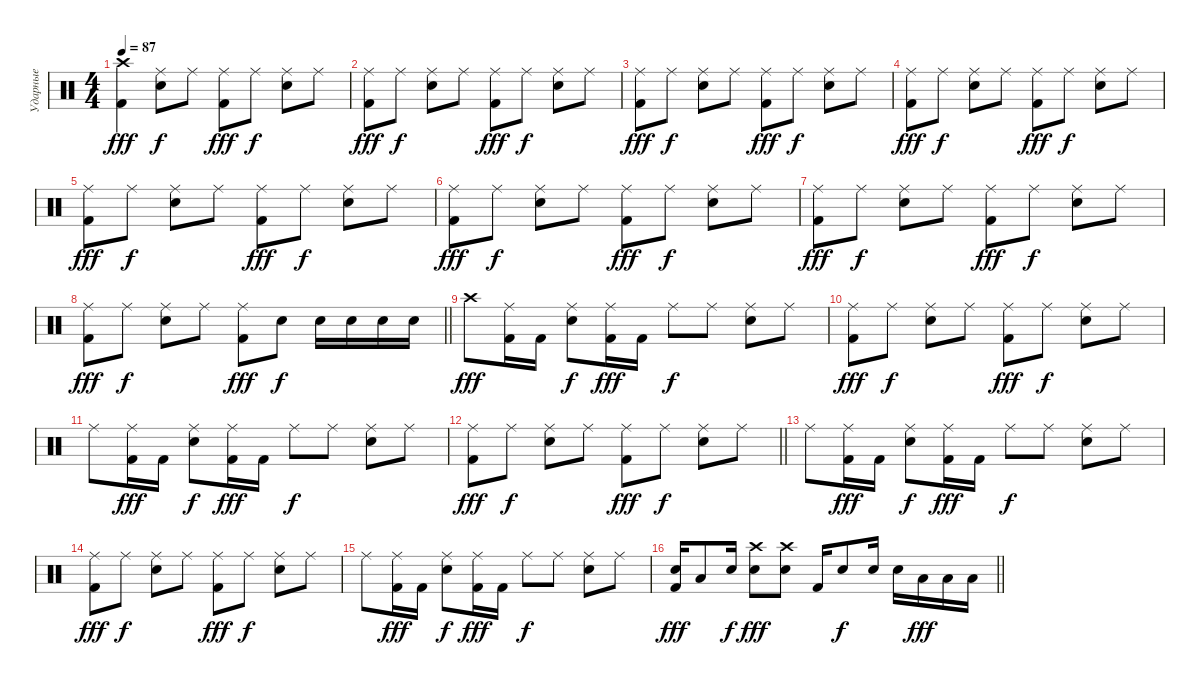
\track ("Ударные" "Ударные") {instrument percussion}
\staff {score}
\articulation defaults
\ts (4 4)
\tempo 87
\clef neutral
\ks c
("Kick (hit) 2" "Crash high (hit)").4{dy fff} ("Snare (hit) 2" "Ride (middle)").8{dy f} "Ride (middle)".8 ("Kick (hit) 2" "Ride (middle)").8{dy fff} "Ride (middle)".8{dy f} ("Snare (hit) 2" "Ride (middle)").8 "Ride (middle)".8 |
("Kick (hit) 2" "Ride (middle)").8{dy fff} "Ride (middle)".8{dy f} ("Snare (hit) 2" "Ride (middle)").8 "Ride (middle)".8 ("Kick (hit) 2" "Ride (middle)").8{dy fff} "Ride (middle)".8{dy f} ("Snare (hit) 2" "Ride (middle)").8 "Ride (middle)".8 |
("Kick (hit) 2" "Ride (middle)").8{dy fff} "Ride (middle)".8{dy f} ("Snare (hit) 2" "Ride (middle)").8 "Ride (middle)".8 ("Kick (hit) 2" "Ride (middle)").8{dy fff} "Ride (middle)".8{dy f} ("Snare (hit) 2" "Ride (middle)").8 "Ride (middle)".8 |
("Kick (hit) 2" "Ride (middle)").8{dy fff} "Ride (middle)".8{dy f} ("Snare (hit) 2" "Ride (middle)").8 "Ride (middle)".8 ("Kick (hit) 2" "Ride (middle)").8{dy fff} "Ride (middle)".8{dy f} ("Snare (hit) 2" "Ride (middle)").8 "Ride (middle)".8 |
("Kick (hit) 2" "Ride (middle)").8{dy fff} "Ride (middle)".8{dy f} ("Snare (hit) 2" "Ride (middle)").8 "Ride (middle)".8 ("Kick (hit) 2" "Ride (middle)").8{dy fff} "Ride (middle)".8{dy f} ("Snare (hit) 2" "Ride (middle)").8 "Ride (middle)".8 |
("Kick (hit) 2" "Ride (middle)").8{dy fff} "Ride (middle)".8{dy f} ("Snare (hit) 2" "Ride (middle)").8 "Ride (middle)".8 ("Kick (hit) 2" "Ride (middle)").8{dy fff} "Ride (middle)".8{dy f} ("Snare (hit) 2" "Ride (middle)").8 "Ride (middle)".8 |
("Kick (hit) 2" "Ride (middle)").8{dy fff} "Ride (middle)".8{dy f} ("Snare (hit) 2" "Ride (middle)").8 "Ride (middle)".8 ("Kick (hit) 2" "Ride (middle)").8{dy fff} "Ride (middle)".8{dy f} ("Snare (hit) 2" "Ride (middle)").8 "Ride (middle)".8 |
\barLineRight lightlight
("Kick (hit) 2" "Ride (middle)").8{dy fff} "Ride (middle)".8{dy f} ("Snare (hit) 2" "Ride (middle)").8 "Ride (middle)".8 ("Kick (hit) 2" "Ride (middle)").8{dy fff} "Snare (hit) 2".8{dy f} "Snare (hit) 2".16 "Snare (hit) 2".16 "Snare (hit) 2".16 "Snare (hit) 2".16 |
"Crash high (hit)".8{dy fff} ("Kick (hit) 2" "Ride (middle)").16 "Kick (hit) 2".16 ("Snare (hit) 2" "Ride (middle)").8{dy f} ("Kick (hit) 2" "Ride (middle)").16{dy fff} "Kick (hit) 2".16 "Ride (middle)".8{dy f} "Ride (middle)".8 ("Snare (hit) 2" "Ride (middle)").8 "Ride (middle)".8 |
("Kick (hit) 2" "Ride (middle)").8{dy fff} "Ride (middle)".8{dy f} ("Snare (hit) 2" "Ride (middle)").8 "Ride (middle)".8 ("Kick (hit) 2" "Ride (middle)").8{dy fff} "Ride (middle)".8{dy f} ("Snare (hit) 2" "Ride (middle)").8 "Ride (middle)".8 |
"Ride (middle)".8 ("Kick (hit) 2" "Ride (middle)").16{dy fff} "Kick (hit) 2".16 ("Snare (hit) 2" "Ride (middle)").8{dy f} ("Kick (hit) 2" "Ride (middle)").16{dy fff} "Kick (hit) 2".16 "Ride (middle)".8{dy f} "Ride (middle)".8 ("Snare (hit) 2" "Ride (middle)").8 "Ride (middle)".8 |
\barLineRight lightlight
("Kick (hit) 2" "Ride (middle)").8{dy fff} "Ride (middle)".8{dy f} ("Snare (hit) 2" "Ride (middle)").8 "Ride (middle)".8 ("Kick (hit) 2" "Ride (middle)").8{dy fff} "Ride (middle)".8{dy f} ("Snare (hit) 2" "Ride (middle)").8 "Ride (middle)".8 |
"Ride (middle)".8 ("Kick (hit) 2" "Ride (middle)").16{dy fff} "Kick (hit) 2".16 ("Snare (hit) 2" "Ride (middle)").8{dy f} ("Kick (hit) 2" "Ride (middle)").16{dy fff} "Kick (hit) 2".16 "Ride (middle)".8{dy f} "Ride (middle)".8 ("Snare (hit) 2" "Ride (middle)").8 "Ride (middle)".8 |
("Kick (hit) 2" "Ride (middle)").8{dy fff} "Ride (middle)".8{dy f} ("Snare (hit) 2" "Ride (middle)").8 "Ride (middle)".8 ("Kick (hit) 2" "Ride (middle)").8{dy fff} "Ride (middle)".8{dy f} ("Snare (hit) 2" "Ride (middle)").8 "Ride (middle)".8 |
"Ride (middle)".8 ("Kick (hit) 2" "Ride (middle)").16{dy fff} "Kick (hit) 2".16 ("Snare (hit) 2" "Ride (middle)").8{dy f} ("Kick (hit) 2" "Ride (middle)").16{dy fff} "Kick (hit) 2".16 "Ride (middle)".8{dy f} "Ride (middle)".8 ("Snare (hit) 2" "Ride (middle)").8 "Ride (middle)".8 |
\barLineRight lightlight
("Kick (hit) 2" "Snare (hit) 2").16{dy fff} "Low Tom (hit)".8 "Snare (hit) 2".16{dy f} ("Snare (hit) 2" "Crash high (hit)").8{dy fff} ("Snare (hit) 2" "Crash high (hit)").8 "Kick (hit) 2".16 "Snare (hit) 2".8{dy f} "Snare (hit) 2".16 "Snare (hit) 2".16 "Low Tom (hit)".16{dy fff} "Low Tom (hit)".16 "Low Tom (hit)".16
